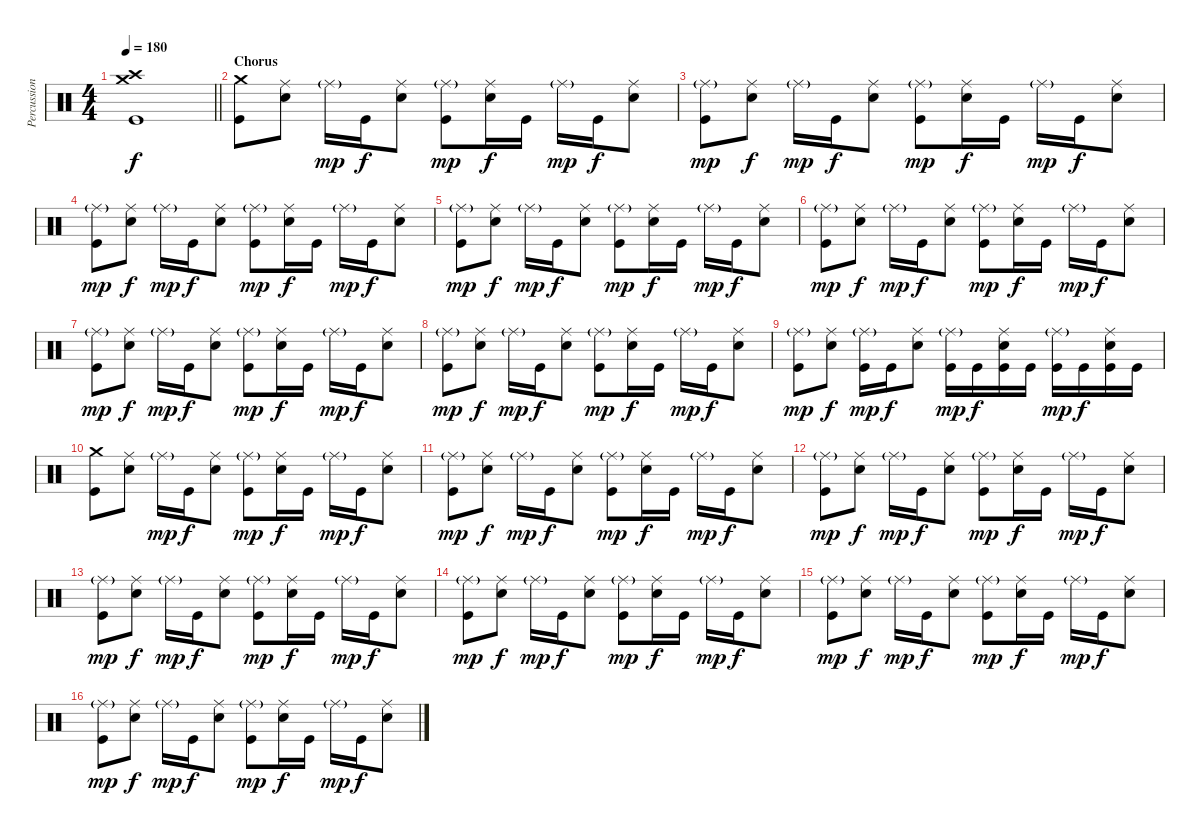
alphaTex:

\track ("Percussion" "Percussion") {instrument percussion}
\staff {score}
\articulation defaults
\ts (4 4)
\tempo 180
\clef neutral
\barLineRight lightlight
\ks c
("Crash medium (hit)" "Crash high (hit)" "Kick (hit)").1{dy f} |
\section ("" "Chorus")
("Crash medium (hit)" "Kick (hit)").8 ("Ride (middle)" "Electric Snare (hit)").8 "Ride (middle)"{g}.16{dy mp} "Kick (hit)".16{dy f} ("Ride (middle)" "Electric Snare (hit)").8 ("Ride (middle)"{g} "Kick (hit)").8{dy mp} ("Ride (middle)" "Electric Snare (hit)").16{dy f} "Kick (hit)".16 "Ride (middle)"{g}.16{dy mp} "Kick (hit)".16{dy f} ("Ride (middle)" "Electric Snare (hit)").8 |
("Ride (middle)"{g} "Kick (hit)").8{dy mp} ("Ride (middle)" "Electric Snare (hit)").8{dy f} "Ride (middle)"{g}.16{dy mp} "Kick (hit)".16{dy f} ("Ride (middle)" "Electric Snare (hit)").8 ("Ride (middle)"{g} "Kick (hit)").8{dy mp} ("Ride (middle)" "Electric Snare (hit)").16{dy f} "Kick (hit)".16 "Ride (middle)"{g}.16{dy mp} "Kick (hit)".16{dy f} ("Ride (middle)" "Electric Snare (hit)").8 |
("Ride (middle)"{g} "Kick (hit)").8{dy mp} ("Ride (middle)" "Electric Snare (hit)").8{dy f} "Ride (middle)"{g}.16{dy mp} "Kick (hit)".16{dy f} ("Ride (middle)" "Electric Snare (hit)").8 ("Ride (middle)"{g} "Kick (hit)").8{dy mp} ("Ride (middle)" "Electric Snare (hit)").16{dy f} "Kick (hit)".16 "Ride (middle)"{g}.16{dy mp} "Kick (hit)".16{dy f} ("Ride (middle)" "Electric Snare (hit)").8 |
("Ride (middle)"{g} "Kick (hit)").8{dy mp} ("Ride (middle)" "Electric Snare (hit)").8{dy f} "Ride (middle)"{g}.16{dy mp} "Kick (hit)".16{dy f} ("Ride (middle)" "Electric Snare (hit)").8 ("Ride (middle)"{g} "Kick (hit)").8{dy mp} ("Ride (middle)" "Electric Snare (hit)").16{dy f} "Kick (hit)".16 "Ride (middle)"{g}.16{dy mp} "Kick (hit)".16{dy f} ("Ride (middle)" "Electric Snare (hit)").8 |
("Ride (middle)"{g} "Kick (hit)").8{dy mp} ("Ride (middle)" "Electric Snare (hit)").8{dy f} "Ride (middle)"{g}.16{dy mp} "Kick (hit)".16{dy f} ("Ride (middle)" "Electric Snare (hit)").8 ("Ride (middle)"{g} "Kick (hit)").8{dy mp} ("Ride (middle)" "Electric Snare (hit)").16{dy f} "Kick (hit)".16 "Ride (middle)"{g}.16{dy mp} "Kick (hit)".16{dy f} ("Ride (middle)" "Electric Snare (hit)").8 |
("Ride (middle)"{g} "Kick (hit)").8{dy mp} ("Ride (middle)" "Electric Snare (hit)").8{dy f} "Ride (middle)"{g}.16{dy mp} "Kick (hit)".16{dy f} ("Ride (middle)" "Electric Snare (hit)").8 ("Ride (middle)"{g} "Kick (hit)").8{dy mp} ("Ride (middle)" "Electric Snare (hit)").16{dy f} "Kick (hit)".16 "Ride (middle)"{g}.16{dy mp} "Kick (hit)".16{dy f} ("Ride (middle)" "Electric Snare (hit)").8 |
("Ride (middle)"{g} "Kick (hit)").8{dy mp} ("Ride (middle)" "Electric Snare (hit)").8{dy f} "Ride (middle)"{g}.16{dy mp} "Kick (hit)".16{dy f} ("Ride (middle)" "Electric Snare (hit)").8 ("Ride (middle)"{g} "Kick (hit)").8{dy mp} ("Ride (middle)" "Electric Snare (hit)").16{dy f} "Kick (hit)".16 "Ride (middle)"{g}.16{dy mp} "Kick (hit)".16{dy f} ("Ride (middle)" "Electric Snare (hit)").8 |
("Ride (middle)"{g} "Kick (hit)").8{dy mp} ("Ride (middle)" "Electric Snare (hit)").8{dy f} ("Ride (middle)"{g} "Kick (hit)").16{dy mp} "Kick (hit)".16{dy f} ("Ride (middle)" "Electric Snare (hit)").8 ("Ride (middle)"{g} "Kick (hit)").16{dy mp} "Kick (hit)".16{dy f} ("Ride (middle)" "Electric Snare (hit)" "Kick (hit)").16 "Kick (hit)".16 ("Ride (middle)"{g} "Kick (hit)").16{dy mp} "Kick (hit)".16{dy f} ("Ride (middle)" "Electric Snare (hit)" "Kick (hit)").16 "Kick (hit)".16 |
("Crash medium (hit)" "Kick (hit)").8 ("Ride (middle)" "Electric Snare (hit)").8 "Ride (middle)"{g}.16{dy mp} "Kick (hit)".16{dy f} ("Ride (middle)" "Electric Snare (hit)").8 ("Ride (middle)"{g} "Kick (hit)").8{dy mp} ("Ride (middle)" "Electric Snare (hit)").16{dy f} "Kick (hit)".16 "Ride (middle)"{g}.16{dy mp} "Kick (hit)".16{dy f} ("Ride (middle)" "Electric Snare (hit)").8 |
("Ride (middle)"{g} "Kick (hit)").8{dy mp} ("Ride (middle)" "Electric Snare (hit)").8{dy f} "Ride (middle)"{g}.16{dy mp} "Kick (hit)".16{dy f} ("Ride (middle)" "Electric Snare (hit)").8 ("Ride (middle)"{g} "Kick (hit)").8{dy mp} ("Ride (middle)" "Electric Snare (hit)").16{dy f} "Kick (hit)".16 "Ride (middle)"{g}.16{dy mp} "Kick (hit)".16{dy f} ("Ride (middle)" "Electric Snare (hit)").8 |
("Ride (middle)"{g} "Kick (hit)").8{dy mp} ("Ride (middle)" "Electric Snare (hit)").8{dy f} "Ride (middle)"{g}.16{dy mp} "Kick (hit)".16{dy f} ("Ride (middle)" "Electric Snare (hit)").8 ("Ride (middle)"{g} "Kick (hit)").8{dy mp} ("Ride (middle)" "Electric Snare (hit)").16{dy f} "Kick (hit)".16 "Ride (middle)"{g}.16{dy mp} "Kick (hit)".16{dy f} ("Ride (middle)" "Electric Snare (hit)").8 |
("Ride (middle)"{g} "Kick (hit)").8{dy mp} ("Ride (middle)" "Electric Snare (hit)").8{dy f} "Ride (middle)"{g}.16{dy mp} "Kick (hit)".16{dy f} ("Ride (middle)" "Electric Snare (hit)").8 ("Ride (middle)"{g} "Kick (hit)").8{dy mp} ("Ride (middle)" "Electric Snare (hit)").16{dy f} "Kick (hit)".16 "Ride (middle)"{g}.16{dy mp} "Kick (hit)".16{dy f} ("Ride (middle)" "Electric Snare (hit)").8 |
("Ride (middle)"{g} "Kick (hit)").8{dy mp} ("Ride (middle)" "Electric Snare (hit)").8{dy f} "Ride (middle)"{g}.16{dy mp} "Kick (hit)".16{dy f} ("Ride (middle)" "Electric Snare (hit)").8 ("Ride (middle)"{g} "Kick (hit)").8{dy mp} ("Ride (middle)" "Electric Snare (hit)").16{dy f} "Kick (hit)".16 "Ride (middle)"{g}.16{dy mp} "Kick (hit)".16{dy f} ("Ride (middle)" "Electric Snare (hit)").8 |
("Ride (middle)"{g} "Kick (hit)").8{dy mp} ("Ride (middle)" "Electric Snare (hit)").8{dy f} "Ride (middle)"{g}.16{dy mp} "Kick (hit)".16{dy f} ("Ride (middle)" "Electric Snare (hit)").8 ("Ride (middle)"{g} "Kick (hit)").8{dy mp} ("Ride (middle)" "Electric Snare (hit)").16{dy f} "Kick (hit)".16 "Ride (middle)"{g}.16{dy mp} "Kick (hit)".16{dy f} ("Ride (middle)" "Electric Snare (hit)").8 |
("Ride (middle)"{g} "Kick (hit)").8{dy mp} ("Ride (middle)" "Electric Snare (hit)").8{dy f} "Ride (middle)"{g}.16{dy mp} "Kick (hit)".16{dy f} ("Ride (middle)" "Electric Snare (hit)").8 ("Ride (middle)"{g} "Kick (hit)").8{dy mp} ("Ride (middle)" "Electric Snare (hit)").16{dy f} "Kick (hit)".16 "Ride (middle)"{g}.16{dy mp} "Kick (hit)".16{dy f} ("Ride (middle)" "Electric Snare (hit)").8
